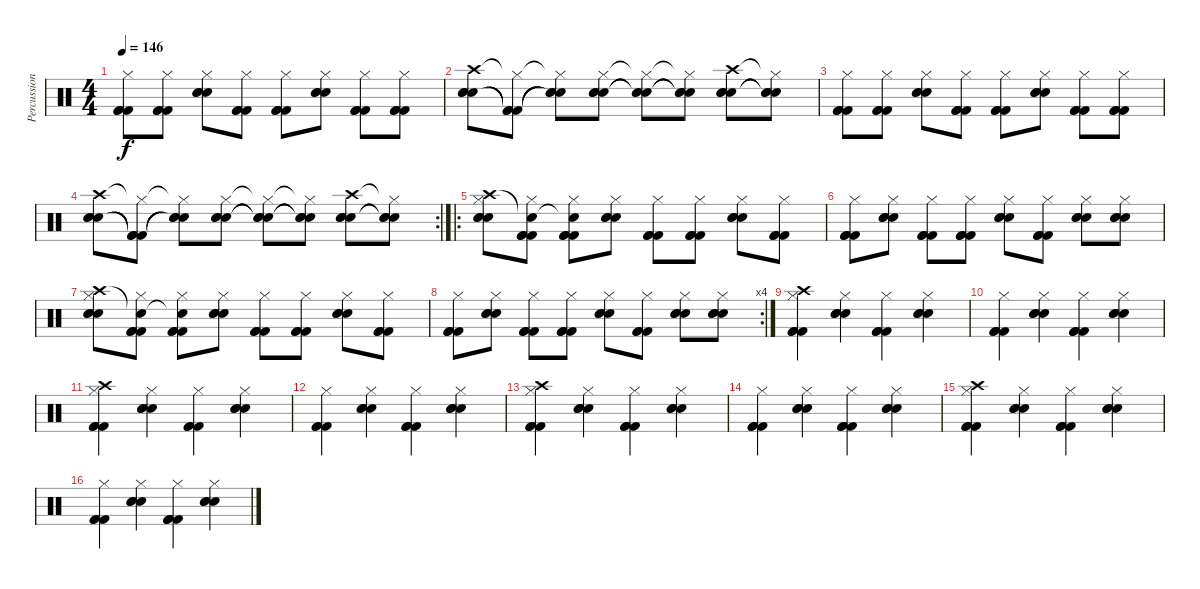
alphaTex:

\track ("Percussion" "Percussion") {instrument percussion}
\staff {score}
\articulation defaults
\ts (4 4)
\tempo 146
\clef neutral
\ks c
("Hi-Hat (closed)" "Kick (hit) 2" "Kick (hit) 2" "Kick (hit) 2").8{dy f} ("Hi-Hat (closed)" "Kick (hit) 2" "Kick (hit) 2" "Kick (hit) 2").8 ("Hi-Hat (closed)" "Snare (hit) 2" "Snare (hit) 2" "Snare (hit) 2").8 ("Hi-Hat (closed)" "Kick (hit) 2" "Kick (hit) 2" "Kick (hit) 2").8 ("Hi-Hat (closed)" "Kick (hit) 2" "Kick (hit) 2" "Kick (hit) 2").8 ("Hi-Hat (closed)" "Snare (hit) 2" "Snare (hit) 2" "Snare (hit) 2").8 ("Hi-Hat (closed)" "Kick (hit) 2" "Kick (hit) 2" "Kick (hit) 2").8 ("Hi-Hat (closed)" "Kick (hit) 2" "Kick (hit) 2" "Kick (hit) 2").8 |
("Crash high (hit)" "Snare (hit) 2" "Snare (hit) 2" "Snare (hit) 2").8 ("Hi-Hat (closed)"{t} "Kick (hit) 2"{t} "Kick (hit) 2"{t} "Kick (hit) 2"{t}).8 ("Hi-Hat (closed)"{t} "Snare (hit) 2"{t} "Snare (hit) 2"{t} "Snare (hit) 2"{t}).8 ("Hi-Hat (closed)" "Snare (hit) 2" "Snare (hit) 2" "Snare (hit) 2").8 ("Hi-Hat (closed)"{t} "Snare (hit) 2"{t} "Snare (hit) 2"{t} "Snare (hit) 2"{t}).8 ("Hi-Hat (closed)"{t} "Snare (hit) 2"{t} "Snare (hit) 2"{t} "Snare (hit) 2"{t}).8 ("Crash high (hit)" "Snare (hit) 2" "Snare (hit) 2" "Snare (hit) 2").8 ("Hi-Hat (closed)"{t} "Snare (hit) 2"{t} "Snare (hit) 2"{t} "Snare (hit) 2"{t}).8 |
("Hi-Hat (closed)" "Kick (hit) 2" "Kick (hit) 2" "Kick (hit) 2").8 ("Hi-Hat (closed)" "Kick (hit) 2" "Kick (hit) 2" "Kick (hit) 2").8 ("Hi-Hat (closed)" "Snare (hit) 2" "Snare (hit) 2" "Snare (hit) 2").8 ("Hi-Hat (closed)" "Kick (hit) 2" "Kick (hit) 2" "Kick (hit) 2").8 ("Hi-Hat (closed)" "Kick (hit) 2" "Kick (hit) 2" "Kick (hit) 2").8 ("Hi-Hat (closed)" "Snare (hit) 2" "Snare (hit) 2" "Snare (hit) 2").8 ("Hi-Hat (closed)" "Kick (hit) 2" "Kick (hit) 2" "Kick (hit) 2").8 ("Hi-Hat (closed)" "Kick (hit) 2" "Kick (hit) 2" "Kick (hit) 2").8 |
\rc 2
("Crash high (hit)" "Snare (hit) 2" "Snare (hit) 2" "Snare (hit) 2").8 ("Hi-Hat (closed)"{t} "Kick (hit) 2"{t} "Kick (hit) 2"{t} "Kick (hit) 2"{t}).8 ("Hi-Hat (closed)"{t} "Snare (hit) 2"{t} "Snare (hit) 2"{t} "Snare (hit) 2"{t}).8 ("Hi-Hat (closed)" "Snare (hit) 2" "Snare (hit) 2" "Snare (hit) 2").8 ("Hi-Hat (closed)"{t} "Snare (hit) 2"{t} "Snare (hit) 2"{t} "Snare (hit) 2"{t}).8 ("Hi-Hat (closed)"{t} "Snare (hit) 2"{t} "Snare (hit) 2"{t} "Snare (hit) 2"{t}).8 ("Crash high (hit)" "Snare (hit) 2" "Snare (hit) 2" "Snare (hit) 2").8 ("Hi-Hat (closed)"{t} "Snare (hit) 2"{t} "Snare (hit) 2"{t} "Snare (hit) 2"{t}).8 |
\ro
("Crash high (hit)" "Hi-Hat (closed)" "Snare (hit) 2" "Snare (hit) 2" "Snare (hit) 2").8 ("Snare (hit)"{t} "Hi-Hat (closed)" "Kick (hit) 2" "Kick (hit) 2" "Kick (hit) 2").8 ("Snare (hit)"{t} "Hi-Hat (closed)" "Kick (hit) 2" "Kick (hit) 2" "Kick (hit) 2").8 ("Hi-Hat (closed)" "Snare (hit) 2" "Snare (hit) 2" "Snare (hit) 2").8 ("Hi-Hat (closed)" "Kick (hit) 2" "Kick (hit) 2" "Kick (hit) 2").8 ("Hi-Hat (closed)" "Kick (hit) 2" "Kick (hit) 2" "Kick (hit) 2").8 ("Hi-Hat (closed)" "Snare (hit) 2" "Snare (hit) 2" "Snare (hit) 2").8 ("Hi-Hat (closed)" "Kick (hit) 2" "Kick (hit) 2" "Kick (hit) 2").8 |
("Hi-Hat (closed)" "Kick (hit) 2" "Kick (hit) 2" "Kick (hit) 2").8 ("Hi-Hat (closed)" "Snare (hit) 2" "Snare (hit) 2" "Snare (hit) 2").8 ("Hi-Hat (closed)" "Kick (hit) 2" "Kick (hit) 2" "Kick (hit) 2").8 ("Hi-Hat (closed)" "Kick (hit) 2" "Kick (hit) 2" "Kick (hit) 2").8 ("Hi-Hat (closed)" "Snare (hit) 2" "Snare (hit) 2" "Snare (hit) 2").8 ("Hi-Hat (closed)" "Kick (hit) 2" "Kick (hit) 2" "Kick (hit) 2").8 ("Hi-Hat (closed)" "Snare (hit) 2" "Snare (hit) 2" "Snare (hit) 2").8 ("Hi-Hat (closed)" "Snare (hit) 2" "Snare (hit) 2" "Snare (hit) 2").8 |
("Crash high (hit)" "Hi-Hat (closed)" "Snare (hit) 2" "Snare (hit) 2" "Snare (hit) 2").8 ("Snare (hit)"{t} "Hi-Hat (closed)" "Kick (hit) 2" "Kick (hit) 2" "Kick (hit) 2").8 ("Snare (hit)"{t} "Hi-Hat (closed)" "Kick (hit) 2" "Kick (hit) 2" "Kick (hit) 2").8 ("Hi-Hat (closed)" "Snare (hit) 2" "Snare (hit) 2" "Snare (hit) 2").8 ("Hi-Hat (closed)" "Kick (hit) 2" "Kick (hit) 2" "Kick (hit) 2").8 ("Hi-Hat (closed)" "Kick (hit) 2" "Kick (hit) 2" "Kick (hit) 2").8 ("Hi-Hat (closed)" "Snare (hit) 2" "Snare (hit) 2" "Snare (hit) 2").8 ("Hi-Hat (closed)" "Kick (hit) 2" "Kick (hit) 2" "Kick (hit) 2").8 |
\rc 4
("Hi-Hat (closed)" "Kick (hit) 2" "Kick (hit) 2" "Kick (hit) 2").8 ("Hi-Hat (closed)" "Snare (hit) 2" "Snare (hit) 2" "Snare (hit) 2").8 ("Hi-Hat (closed)" "Kick (hit) 2" "Kick (hit) 2" "Kick (hit) 2").8 ("Hi-Hat (closed)" "Kick (hit) 2" "Kick (hit) 2" "Kick (hit) 2").8 ("Hi-Hat (closed)" "Snare (hit) 2" "Snare (hit) 2" "Snare (hit) 2").8 ("Hi-Hat (closed)" "Kick (hit) 2" "Kick (hit) 2" "Kick (hit) 2").8 ("Hi-Hat (closed)" "Snare (hit) 2" "Snare (hit) 2" "Snare (hit) 2").8 ("Hi-Hat (closed)" "Snare (hit) 2" "Snare (hit) 2" "Snare (hit) 2").8 |
("Crash high (hit)" "Hi-Hat (closed)" "Kick (hit) 2" "Kick (hit) 2" "Kick (hit) 2").4 ("Hi-Hat (closed)" "Snare (hit) 2" "Snare (hit) 2" "Snare (hit) 2").4 ("Hi-Hat (closed)" "Kick (hit) 2" "Kick (hit) 2" "Kick (hit) 2").4 ("Hi-Hat (closed)" "Snare (hit) 2" "Snare (hit) 2" "Snare (hit) 2").4 |
("Hi-Hat (closed)" "Kick (hit) 2" "Kick (hit) 2" "Kick (hit) 2").4 ("Hi-Hat (closed)" "Snare (hit) 2" "Snare (hit) 2" "Snare (hit) 2").4 ("Hi-Hat (closed)" "Kick (hit) 2" "Kick (hit) 2" "Kick (hit) 2").4 ("Hi-Hat (closed)" "Snare (hit) 2" "Snare (hit) 2" "Snare (hit) 2").4 |
("Crash high (hit)" "Hi-Hat (closed)" "Kick (hit) 2" "Kick (hit) 2" "Kick (hit) 2").4 ("Hi-Hat (closed)" "Snare (hit) 2" "Snare (hit) 2" "Snare (hit) 2").4 ("Hi-Hat (closed)" "Kick (hit) 2" "Kick (hit) 2" "Kick (hit) 2").4 ("Hi-Hat (closed)" "Snare (hit) 2" "Snare (hit) 2" "Snare (hit) 2").4 |
("Hi-Hat (closed)" "Kick (hit) 2" "Kick (hit) 2" "Kick (hit) 2").4 ("Hi-Hat (closed)" "Snare (hit) 2" "Snare (hit) 2" "Snare (hit) 2").4 ("Hi-Hat (closed)" "Kick (hit) 2" "Kick (hit) 2" "Kick (hit) 2").4 ("Hi-Hat (closed)" "Snare (hit) 2" "Snare (hit) 2" "Snare (hit) 2").4 |
("Crash high (hit)" "Hi-Hat (closed)" "Kick (hit) 2" "Kick (hit) 2" "Kick (hit) 2").4 ("Hi-Hat (closed)" "Snare (hit) 2" "Snare (hit) 2" "Snare (hit) 2").4 ("Hi-Hat (closed)" "Kick (hit) 2" "Kick (hit) 2" "Kick (hit) 2").4 ("Hi-Hat (closed)" "Snare (hit) 2" "Snare (hit) 2" "Snare (hit) 2").4 |
("Hi-Hat (closed)" "Kick (hit) 2" "Kick (hit) 2" "Kick (hit) 2").4 ("Hi-Hat (closed)" "Snare (hit) 2" "Snare (hit) 2" "Snare (hit) 2").4 ("Hi-Hat (closed)" "Kick (hit) 2" "Kick (hit) 2" "Kick (hit) 2").4 ("Hi-Hat (closed)" "Snare (hit) 2" "Snare (hit) 2" "Snare (hit) 2").4 |
("Crash high (hit)" "Hi-Hat (closed)" "Kick (hit) 2" "Kick (hit) 2" "Kick (hit) 2").4 ("Hi-Hat (closed)" "Snare (hit) 2" "Snare (hit) 2" "Snare (hit) 2").4 ("Hi-Hat (closed)" "Kick (hit) 2" "Kick (hit) 2" "Kick (hit) 2").4 ("Hi-Hat (closed)" "Snare (hit) 2" "Snare (hit) 2" "Snare (hit) 2").4 |
("Hi-Hat (closed)" "Kick (hit) 2" "Kick (hit) 2" "Kick (hit) 2").4 ("Hi-Hat (closed)" "Snare (hit) 2" "Snare (hit) 2" "Snare (hit) 2").4 ("Hi-Hat (closed)" "Kick (hit) 2" "Kick (hit) 2" "Kick (hit) 2").4 ("Hi-Hat (closed)" "Snare (hit) 2" "Snare (hit) 2" "Snare (hit) 2").4
